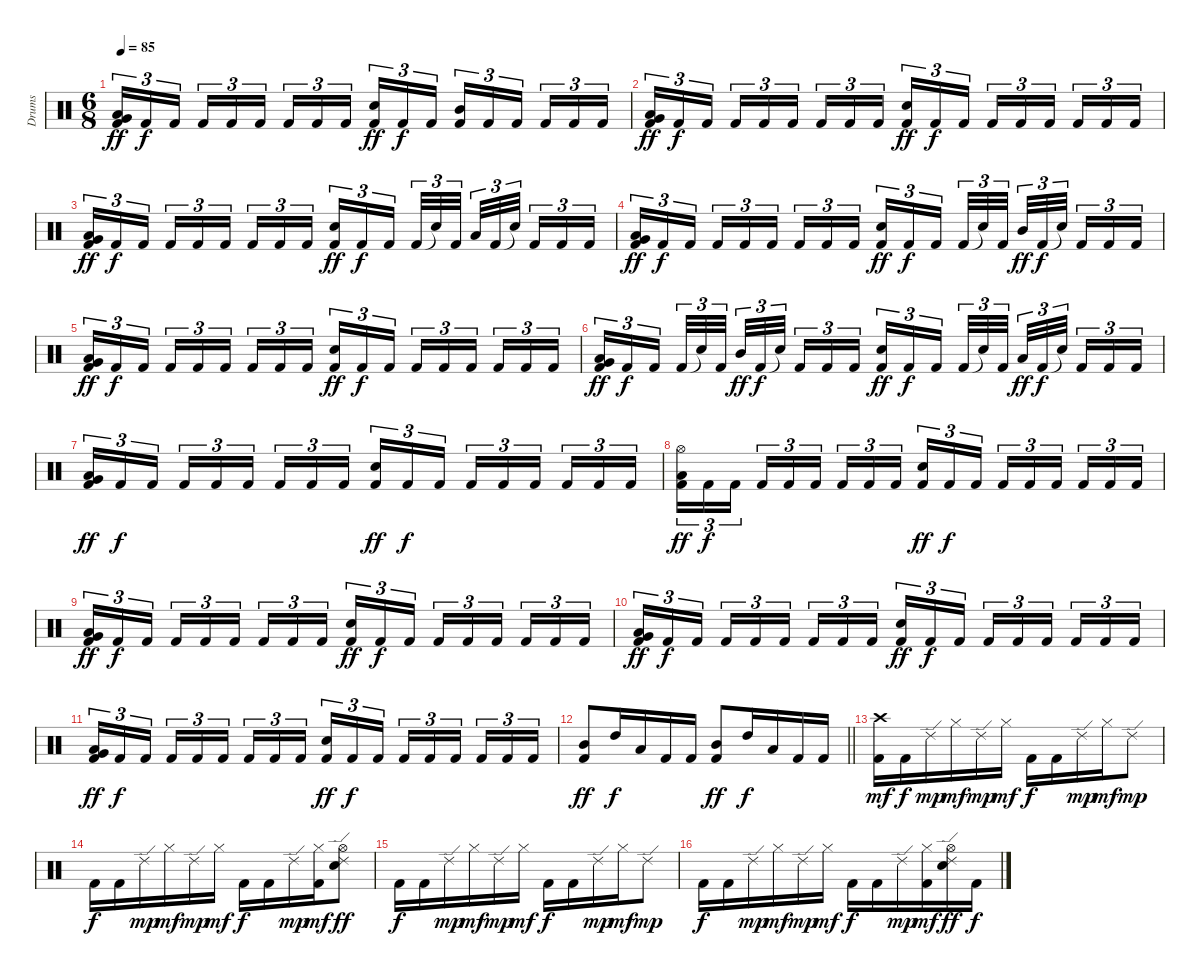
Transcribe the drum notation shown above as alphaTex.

\track ("Drums" "Drums") {instrument percussion}
\staff {score}
\articulation defaults
\ts (6 8)
\tempo 85
\clef neutral
\ks c
("Very Low Tom (hit)" "Low Tom (hit)" "Kick (hit) 2").16{tu (3 2) dy ff} "Kick (hit) 2".16{tu (3 2) dy f} "Kick (hit) 2".16{tu (3 2) beam splitsecondary} "Kick (hit) 2".16{tu (3 2)} "Kick (hit) 2".16{tu (3 2)} "Kick (hit) 2".16{tu (3 2) beam splitsecondary} "Kick (hit) 2".16{tu (3 2)} "Kick (hit) 2".16{tu (3 2)} "Kick (hit) 2".16{tu (3 2)} ("Snare (hit) 2" "Kick (hit) 2").16{tu (3 2) dy ff} "Kick (hit) 2".16{tu (3 2) dy f} "Kick (hit) 2".16{tu (3 2) beam splitsecondary} ("Mid Tom (hit)" "Kick (hit) 2").16{tu (3 2)} "Kick (hit) 2".16{tu (3 2)} "Kick (hit) 2".16{tu (3 2) beam splitsecondary} "Kick (hit) 2".16{tu (3 2)} "Kick (hit) 2".16{tu (3 2)} "Kick (hit) 2".16{tu (3 2)} |
("Very Low Tom (hit)" "Low Tom (hit)" "Kick (hit) 2").16{tu (3 2) dy ff} "Kick (hit) 2".16{tu (3 2) dy f} "Kick (hit) 2".16{tu (3 2) beam splitsecondary} "Kick (hit) 2".16{tu (3 2)} "Kick (hit) 2".16{tu (3 2)} "Kick (hit) 2".16{tu (3 2) beam splitsecondary} "Kick (hit) 2".16{tu (3 2)} "Kick (hit) 2".16{tu (3 2)} "Kick (hit) 2".16{tu (3 2)} ("Snare (hit) 2" "Kick (hit) 2").16{tu (3 2) dy ff} "Kick (hit) 2".16{tu (3 2) dy f} "Kick (hit) 2".16{tu (3 2) beam splitsecondary} "Kick (hit) 2".16{tu (3 2)} "Kick (hit) 2".16{tu (3 2)} "Kick (hit) 2".16{tu (3 2) beam splitsecondary} "Kick (hit) 2".16{tu (3 2)} "Kick (hit) 2".16{tu (3 2)} "Kick (hit) 2".16{tu (3 2)} |
("Very Low Tom (hit)" "Low Tom (hit)" "Kick (hit) 2").16{tu (3 2) dy ff} "Kick (hit) 2".16{tu (3 2) dy f} "Kick (hit) 2".16{tu (3 2) beam splitsecondary} "Kick (hit) 2".16{tu (3 2)} "Kick (hit) 2".16{tu (3 2)} "Kick (hit) 2".16{tu (3 2) beam splitsecondary} "Kick (hit) 2".16{tu (3 2)} "Kick (hit) 2".16{tu (3 2)} "Kick (hit) 2".16{tu (3 2)} ("Snare (hit) 2" "Kick (hit) 2").16{tu (3 2) dy ff} "Kick (hit) 2".16{tu (3 2) dy f} "Kick (hit) 2".16{tu (3 2) beam splitsecondary} "Kick (hit) 2".32{tu (3 2)} "Snare (hit)"{t}.32{tu (3 2)} "Kick (hit) 2".32{tu (3 2) beam splitsecondary} "Low Tom (hit)".32{tu (3 2)} "Kick (hit) 2".32{tu (3 2)} "Snare (hit)"{t}.32{tu (3 2) beam splitsecondary} "Kick (hit) 2".16{tu (3 2)} "Kick (hit) 2".16{tu (3 2)} "Kick (hit) 2".16{tu (3 2)} |
("Very Low Tom (hit)" "Low Tom (hit)" "Kick (hit) 2").16{tu (3 2) dy ff} "Kick (hit) 2".16{tu (3 2) dy f} "Kick (hit) 2".16{tu (3 2) beam splitsecondary} "Kick (hit) 2".16{tu (3 2)} "Kick (hit) 2".16{tu (3 2)} "Kick (hit) 2".16{tu (3 2) beam splitsecondary} "Kick (hit) 2".16{tu (3 2)} "Kick (hit) 2".16{tu (3 2)} "Kick (hit) 2".16{tu (3 2)} ("Snare (hit) 2" "Kick (hit) 2").16{tu (3 2) dy ff} "Kick (hit) 2".16{tu (3 2) dy f} "Kick (hit) 2".16{tu (3 2) beam splitsecondary} "Kick (hit) 2".32{tu (3 2)} "Snare (hit)"{t}.32{tu (3 2)} "Kick (hit) 2".32{tu (3 2) beam splitsecondary} "Mid Tom (hit)".32{tu (3 2) dy ff} "Kick (hit) 2".32{tu (3 2) dy f} "Snare (hit)"{t}.32{tu (3 2) beam splitsecondary} "Kick (hit) 2".16{tu (3 2)} "Kick (hit) 2".16{tu (3 2)} "Kick (hit) 2".16{tu (3 2)} |
("Very Low Tom (hit)" "Low Tom (hit)" "Kick (hit) 2").16{tu (3 2) dy ff} "Kick (hit) 2".16{tu (3 2) dy f} "Kick (hit) 2".16{tu (3 2) beam splitsecondary} "Kick (hit) 2".16{tu (3 2)} "Kick (hit) 2".16{tu (3 2)} "Kick (hit) 2".16{tu (3 2) beam splitsecondary} "Kick (hit) 2".16{tu (3 2)} "Kick (hit) 2".16{tu (3 2)} "Kick (hit) 2".16{tu (3 2)} ("Snare (hit) 2" "Kick (hit) 2").16{tu (3 2) dy ff} "Kick (hit) 2".16{tu (3 2) dy f} "Kick (hit) 2".16{tu (3 2) beam splitsecondary} "Kick (hit) 2".16{tu (3 2)} "Kick (hit) 2".16{tu (3 2)} "Kick (hit) 2".16{tu (3 2) beam splitsecondary} "Kick (hit) 2".16{tu (3 2)} "Kick (hit) 2".16{tu (3 2)} "Kick (hit) 2".16{tu (3 2)} |
("Very Low Tom (hit)" "Low Tom (hit)" "Kick (hit) 2").16{tu (3 2) dy ff} "Kick (hit) 2".16{tu (3 2) dy f} "Kick (hit) 2".16{tu (3 2) beam splitsecondary} "Kick (hit) 2".32{tu (3 2)} "Snare (hit)"{t}.32{tu (3 2)} "Kick (hit) 2".32{tu (3 2) beam splitsecondary} "Mid Tom (hit)".32{tu (3 2) dy ff} "Kick (hit) 2".32{tu (3 2) dy f} "Snare (hit)"{t}.32{tu (3 2) beam splitsecondary} "Kick (hit) 2".16{tu (3 2)} "Kick (hit) 2".16{tu (3 2)} "Kick (hit) 2".16{tu (3 2)} ("Snare (hit) 2" "Kick (hit) 2").16{tu (3 2) dy ff} "Kick (hit) 2".16{tu (3 2) dy f} "Kick (hit) 2".16{tu (3 2) beam splitsecondary} "Kick (hit) 2".32{tu (3 2)} "Snare (hit)"{t}.32{tu (3 2)} "Kick (hit) 2".32{tu (3 2) beam splitsecondary} "Low Tom (hit)".32{tu (3 2) dy ff} "Kick (hit) 2".32{tu (3 2) dy f} "Snare (hit)"{t}.32{tu (3 2) beam splitsecondary} "Kick (hit) 2".16{tu (3 2)} "Kick (hit) 2".16{tu (3 2)} "Kick (hit) 2".16{tu (3 2)} |
("Very Low Tom (hit)" "Low Tom (hit)" "Kick (hit) 2").16{tu (3 2) dy ff} "Kick (hit) 2".16{tu (3 2) dy f} "Kick (hit) 2".16{tu (3 2) beam splitsecondary} "Kick (hit) 2".16{tu (3 2)} "Kick (hit) 2".16{tu (3 2)} "Kick (hit) 2".16{tu (3 2) beam splitsecondary} "Kick (hit) 2".16{tu (3 2)} "Kick (hit) 2".16{tu (3 2)} "Kick (hit) 2".16{tu (3 2)} ("Snare (hit) 2" "Kick (hit) 2").16{tu (3 2) dy ff} "Kick (hit) 2".16{tu (3 2) dy f} "Kick (hit) 2".16{tu (3 2) beam splitsecondary} "Kick (hit) 2".16{tu (3 2)} "Kick (hit) 2".16{tu (3 2)} "Kick (hit) 2".16{tu (3 2) beam splitsecondary} "Kick (hit) 2".16{tu (3 2)} "Kick (hit) 2".16{tu (3 2)} "Kick (hit) 2".16{tu (3 2)} |
("Hi-Hat (open)" "Low Tom (hit)" "Kick (hit) 2").16{tu (3 2) dy ff} "Kick (hit) 2".16{tu (3 2) dy f} "Kick (hit) 2".16{tu (3 2) beam splitsecondary} "Kick (hit) 2".16{tu (3 2)} "Kick (hit) 2".16{tu (3 2)} "Kick (hit) 2".16{tu (3 2) beam splitsecondary} "Kick (hit) 2".16{tu (3 2)} "Kick (hit) 2".16{tu (3 2)} "Kick (hit) 2".16{tu (3 2)} ("Snare (hit) 2" "Kick (hit) 2").16{tu (3 2) dy ff} "Kick (hit) 2".16{tu (3 2) dy f} "Kick (hit) 2".16{tu (3 2) beam splitsecondary} "Kick (hit) 2".16{tu (3 2)} "Kick (hit) 2".16{tu (3 2)} "Kick (hit) 2".16{tu (3 2) beam splitsecondary} "Kick (hit) 2".16{tu (3 2)} "Kick (hit) 2".16{tu (3 2)} "Kick (hit) 2".16{tu (3 2)} |
("Very Low Tom (hit)" "Low Tom (hit)" "Kick (hit) 2").16{tu (3 2) dy ff} "Kick (hit) 2".16{tu (3 2) dy f} "Kick (hit) 2".16{tu (3 2) beam splitsecondary} "Kick (hit) 2".16{tu (3 2)} "Kick (hit) 2".16{tu (3 2)} "Kick (hit) 2".16{tu (3 2) beam splitsecondary} "Kick (hit) 2".16{tu (3 2)} "Kick (hit) 2".16{tu (3 2)} "Kick (hit) 2".16{tu (3 2)} ("Snare (hit) 2" "Kick (hit) 2").16{tu (3 2) dy ff} "Kick (hit) 2".16{tu (3 2) dy f} "Kick (hit) 2".16{tu (3 2) beam splitsecondary} "Kick (hit) 2".16{tu (3 2)} "Kick (hit) 2".16{tu (3 2)} "Kick (hit) 2".16{tu (3 2) beam splitsecondary} "Kick (hit) 2".16{tu (3 2)} "Kick (hit) 2".16{tu (3 2)} "Kick (hit) 2".16{tu (3 2)} |
("Very Low Tom (hit)" "Low Tom (hit)" "Kick (hit) 2").16{tu (3 2) dy ff} "Kick (hit) 2".16{tu (3 2) dy f} "Kick (hit) 2".16{tu (3 2) beam splitsecondary} "Kick (hit) 2".16{tu (3 2)} "Kick (hit) 2".16{tu (3 2)} "Kick (hit) 2".16{tu (3 2) beam splitsecondary} "Kick (hit) 2".16{tu (3 2)} "Kick (hit) 2".16{tu (3 2)} "Kick (hit) 2".16{tu (3 2)} ("Snare (hit) 2" "Kick (hit) 2").16{tu (3 2) dy ff} "Kick (hit) 2".16{tu (3 2) dy f} "Kick (hit) 2".16{tu (3 2) beam splitsecondary} "Kick (hit) 2".16{tu (3 2)} "Kick (hit) 2".16{tu (3 2)} "Kick (hit) 2".16{tu (3 2) beam splitsecondary} "Kick (hit) 2".16{tu (3 2)} "Kick (hit) 2".16{tu (3 2)} "Kick (hit) 2".16{tu (3 2)} |
("Very Low Tom (hit)" "Low Tom (hit)" "Kick (hit) 2").16{tu (3 2) dy ff} "Kick (hit) 2".16{tu (3 2) dy f} "Kick (hit) 2".16{tu (3 2) beam splitsecondary} "Kick (hit) 2".16{tu (3 2)} "Kick (hit) 2".16{tu (3 2)} "Kick (hit) 2".16{tu (3 2) beam splitsecondary} "Kick (hit) 2".16{tu (3 2)} "Kick (hit) 2".16{tu (3 2)} "Kick (hit) 2".16{tu (3 2)} ("Snare (hit) 2" "Kick (hit) 2").16{tu (3 2) dy ff} "Kick (hit) 2".16{tu (3 2) dy f} "Kick (hit) 2".16{tu (3 2) beam splitsecondary} "Kick (hit) 2".16{tu (3 2)} "Kick (hit) 2".16{tu (3 2)} "Kick (hit) 2".16{tu (3 2) beam splitsecondary} "Kick (hit) 2".16{tu (3 2)} "Kick (hit) 2".16{tu (3 2)} "Kick (hit) 2".16{tu (3 2)} |
\barLineRight lightlight
("Mid Tom (hit)" "Kick (hit) 2").8{dy ff} "High Tom (hit)".16{dy f} "Low Tom (hit)".16 "Kick (hit) 2".16 "Kick (hit) 2".16 ("Mid Tom (hit)" "Kick (hit) 2").8{dy ff} "High Tom (hit)".16{dy f} "Low Tom (hit)".16 "Kick (hit) 2".16 "Kick (hit) 2".16 |
\section ("" "")
("Crash high (hit)" "Kick (hit) 2").16{dy mf} "Kick (hit) 2".16{dy f} "Ride (edge) 2".16{dy mp} "Hi-Hat (closed)".16{dy mf} "Ride (edge) 2".16{dy mp} "Hi-Hat (closed)".16{dy mf} "Kick (hit) 2".16{dy f} "Kick (hit) 2".16 "Ride (edge) 2".16{dy mp} "Hi-Hat (closed)".16{dy mf} "Ride (edge) 2".8{dy mp} |
"Kick (hit) 2".16{dy f} "Kick (hit) 2".16 "Ride (edge) 2".16{dy mp} "Hi-Hat (closed)".16{dy mf} "Ride (edge) 2".16{dy mp} "Hi-Hat (closed)".16{dy mf} "Kick (hit) 2".16{dy f} "Kick (hit) 2".16 "Ride (edge) 2".16{dy mp} ("Hi-Hat (closed)" "Kick (hit) 2").16{dy mf} ("Ride (edge) 2" "Hi-Hat (open)" "Snare (hit) 2").8{dy ff} |
"Kick (hit) 2".16{dy f} "Kick (hit) 2".16 "Ride (edge) 2".16{dy mp} "Hi-Hat (closed)".16{dy mf} "Ride (edge) 2".16{dy mp} "Hi-Hat (closed)".16{dy mf} "Kick (hit) 2".16{dy f} "Kick (hit) 2".16 "Ride (edge) 2".16{dy mp} "Hi-Hat (closed)".16{dy mf} "Ride (edge) 2".8{dy mp} |
"Kick (hit) 2".16{dy f} "Kick (hit) 2".16 "Ride (edge) 2".16{dy mp} "Hi-Hat (closed)".16{dy mf} "Ride (edge) 2".16{dy mp} "Hi-Hat (closed)".16{dy mf} "Kick (hit) 2".16{dy f} "Kick (hit) 2".16 "Ride (edge) 2".16{dy mp} ("Hi-Hat (closed)" "Kick (hit) 2").16{dy mf} ("Ride (edge) 2" "Hi-Hat (open)" "Snare (hit) 2").16{dy ff} "Kick (hit) 2".16{dy f}
